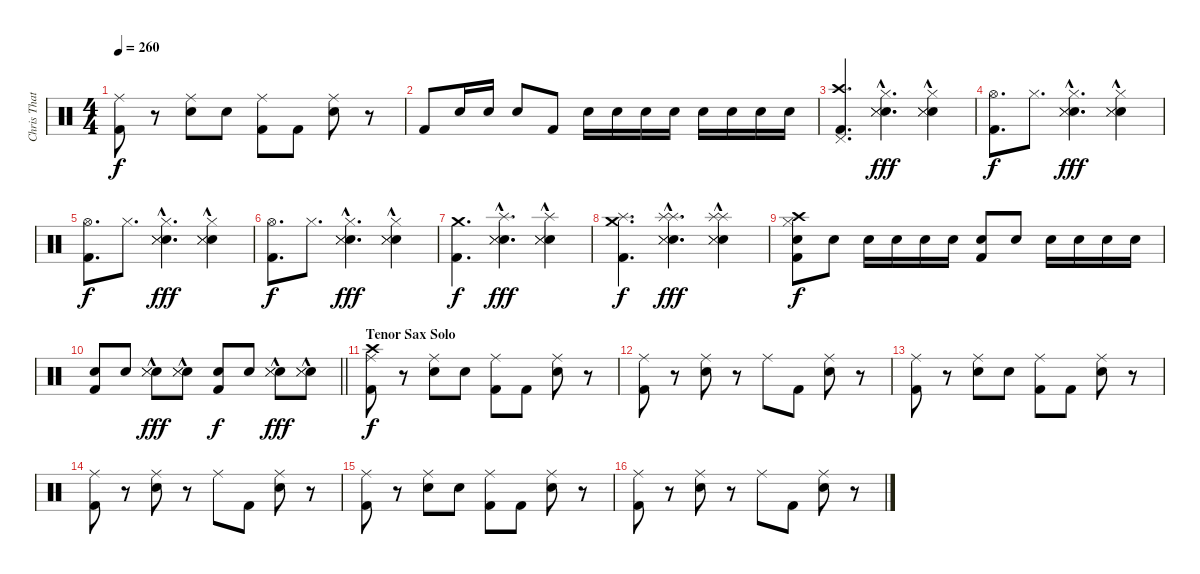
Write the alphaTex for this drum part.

\track ("Chris Thatcher    - Drums" "Chris That") {instrument percussion}
\staff {score}
\articulation defaults
\ts (4 4)
\tempo 260
\clef neutral
\ks c
("Ride (middle)" "Kick (hit) 2").8{dy f} r.8 ("Ride (middle)" "Electric Snare (hit)").8 "Electric Snare (hit)".8 ("Ride (middle)" "Kick (hit) 2").8 "Kick (hit) 2".8 ("Ride (middle)" "Electric Snare (hit)").8 r.8 |
"Kick (hit) 2".8 "Electric Snare (hit)".16 "Electric Snare (hit)".16 "Electric Snare (hit)".8 "Kick (hit) 2".8 "Electric Snare (hit)".16 "Electric Snare (hit)".16 "Electric Snare (hit)".16 "Electric Snare (hit)".16 "Electric Snare (hit)".16 "Electric Snare (hit)".16 "Electric Snare (hit)".16 "Electric Snare (hit)".16 |
("Crash high (hit)" "Pedal Hi-Hat (hit)" "Kick (hit) 2").4{d} ("Hi-Hat (closed)" "Electric Snare (hit)" "Snare (side stick) 3"{hac} "Snare (side stick) 3"{hac}).4{d dy fff} ("Hi-Hat (closed)" "Electric Snare (hit)" "Snare (side stick) 3"{hac} "Snare (side stick) 3"{hac}).4 |
("Hi-Hat (open)" "Kick (hit) 2").8{d dy f} "Hi-Hat (closed)".8{d} ("Hi-Hat (closed)" "Electric Snare (hit)" "Snare (side stick) 3"{hac} "Snare (side stick) 3"{hac}).4{d dy fff} ("Hi-Hat (closed)" "Electric Snare (hit)" "Snare (side stick) 3"{hac} "Snare (side stick) 3"{hac}).4 |
("Hi-Hat (open)" "Kick (hit) 2").8{d dy f} "Hi-Hat (closed)".8{d} ("Hi-Hat (closed)" "Electric Snare (hit)" "Snare (side stick) 3"{hac} "Snare (side stick) 3"{hac}).4{d dy fff} ("Hi-Hat (closed)" "Electric Snare (hit)" "Snare (side stick) 3"{hac} "Snare (side stick) 3"{hac}).4 |
("Hi-Hat (open)" "Kick (hit) 2").8{d dy f} "Hi-Hat (closed)".8{d} ("Hi-Hat (closed)" "Electric Snare (hit)" "Snare (side stick) 3"{hac} "Snare (side stick) 3"{hac}).4{d dy fff} ("Hi-Hat (closed)" "Electric Snare (hit)" "Snare (side stick) 3"{hac} "Snare (side stick) 3"{hac}).4 |
("Crash medium (hit)" "Kick (hit) 2").4{d dy f} ("Splash (hit)" "Electric Snare (hit)" "Snare (side stick) 3"{hac} "Snare (side stick) 3"{hac}).4{d dy fff} ("Splash (hit)" "Electric Snare (hit)" "Snare (side stick) 3"{hac} "Snare (side stick) 3"{hac}).4 |
("Splash (hit)" "Crash medium (hit)" "Kick (hit) 2").4{d dy f} ("Splash (hit)" "Splash (hit)" "Electric Snare (hit)" "Snare (side stick) 3"{hac} "Snare (side stick) 3"{hac}).4{d dy fff} ("Splash (hit)" "Splash (hit)" "Electric Snare (hit)" "Snare (side stick) 3"{hac} "Snare (side stick) 3"{hac}).4 |
("Crash high (hit)" "Hi-Hat (closed)" "Kick (hit) 2" "Electric Snare (hit)").8{dy f} "Electric Snare (hit)".8 "Electric Snare (hit)".16 "Electric Snare (hit)".16 "Electric Snare (hit)".16 "Electric Snare (hit)".16 ("Kick (hit) 2" "Electric Snare (hit)").8 "Electric Snare (hit)".8 "Electric Snare (hit)".16 "Electric Snare (hit)".16 "Electric Snare (hit)".16 "Electric Snare (hit)".16 |
\barLineRight lightlight
("Kick (hit) 2" "Electric Snare (hit)").8 "Electric Snare (hit)".8 ("Electric Snare (hit)" "Snare (side stick) 3"{hac} "Snare (side stick) 3"{hac}).8{dy fff} ("Electric Snare (hit)" "Snare (side stick) 3"{hac} "Snare (side stick) 3"{hac}).8 ("Kick (hit) 2" "Electric Snare (hit)").8{dy f} "Electric Snare (hit)".8 ("Electric Snare (hit)" "Snare (side stick) 3"{hac} "Snare (side stick) 3"{hac}).8{dy fff} ("Electric Snare (hit)" "Snare (side stick) 3"{hac} "Snare (side stick) 3"{hac}).8 |
\section ("" "Tenor Sax Solo")
("Crash high (hit)" "Ride (middle)" "Kick (hit) 2").8{dy f} r.8 ("Ride (middle)" "Electric Snare (hit)").8 "Electric Snare (hit)".8 ("Ride (middle)" "Kick (hit) 2").8 "Kick (hit) 2".8 ("Ride (middle)" "Electric Snare (hit)").8 r.8 |
("Ride (middle)" "Kick (hit) 2").8 r.8 ("Ride (middle)" "Electric Snare (hit)").8 r.8 "Ride (middle)".8 "Kick (hit) 2".8 ("Ride (middle)" "Electric Snare (hit)").8 r.8 |
("Ride (middle)" "Kick (hit) 2").8 r.8 ("Ride (middle)" "Electric Snare (hit)").8 "Electric Snare (hit)".8 ("Ride (middle)" "Kick (hit) 2").8 "Kick (hit) 2".8 ("Ride (middle)" "Electric Snare (hit)").8 r.8 |
("Ride (middle)" "Kick (hit) 2").8 r.8 ("Ride (middle)" "Electric Snare (hit)").8 r.8 "Ride (middle)".8 "Kick (hit) 2".8 ("Ride (middle)" "Electric Snare (hit)").8 r.8 |
("Ride (middle)" "Kick (hit) 2").8 r.8 ("Ride (middle)" "Electric Snare (hit)").8 "Electric Snare (hit)".8 ("Ride (middle)" "Kick (hit) 2").8 "Kick (hit) 2".8 ("Ride (middle)" "Electric Snare (hit)").8 r.8 |
("Ride (middle)" "Kick (hit) 2").8 r.8 ("Ride (middle)" "Electric Snare (hit)").8 r.8 "Ride (middle)".8 "Kick (hit) 2".8 ("Ride (middle)" "Electric Snare (hit)").8 r.8
